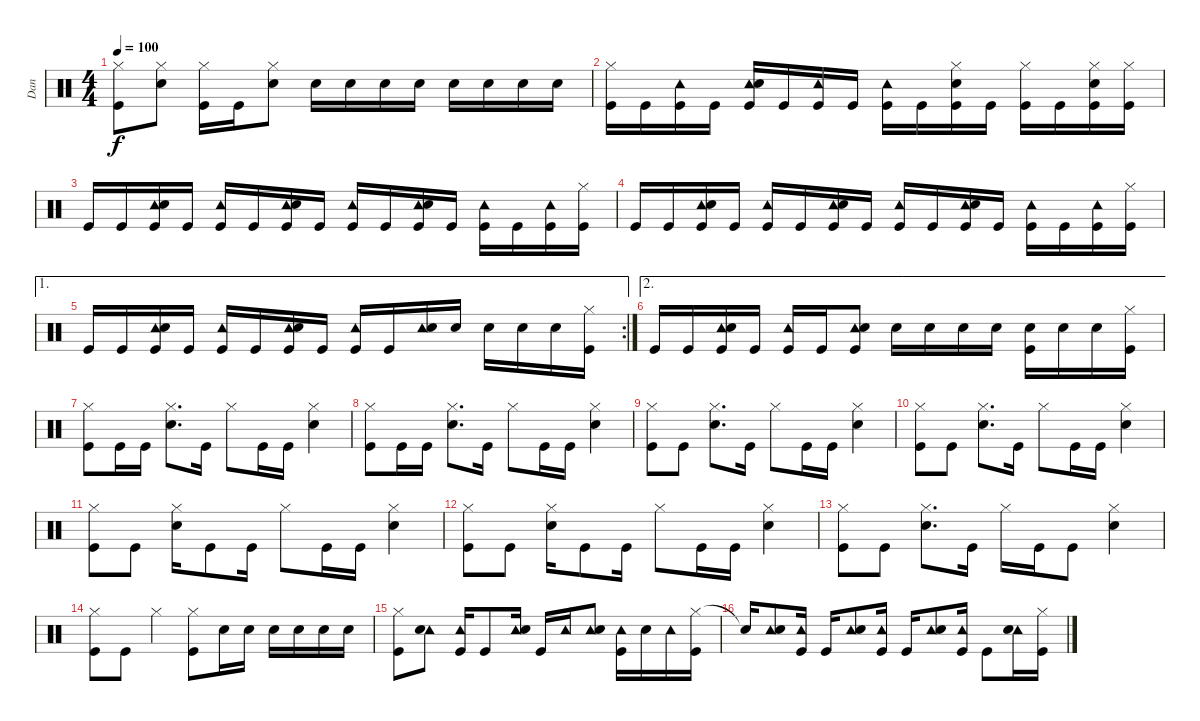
\track ("Dan" "Dan") {instrument percussion}
\staff {score}
\articulation defaults
\ts (4 4)
\tempo 100
\clef neutral
\ks c
("Hi-Hat (closed)" "Kick (hit)").8{dy f} ("Hi-Hat (closed)" "Snare (hit) 2").8 ("Hi-Hat (closed)" "Kick (hit)").16 "Kick (hit)".16 ("Hi-Hat (closed)" "Snare (hit) 2").8 "Snare (hit) 2".16 "Snare (hit) 2".16 "Snare (hit) 2".16 "Snare (hit) 2".16 "Snare (hit) 2".16 "Snare (hit) 2".16 "Snare (hit) 2".16 "Snare (hit) 2".16 |
("Hi-Hat (closed)" "Kick (hit)").16 "Kick (hit)".16 ("Tambourine (hit)" "Kick (hit)").16 "Kick (hit)".16 ("Tambourine (hit)" "Snare (hit) 2" "Kick (hit)").16 "Kick (hit)".16 ("Tambourine (hit)" "Kick (hit)").16 "Kick (hit)".16 ("Tambourine (hit)" "Kick (hit)").16 "Kick (hit)".16 ("Hi-Hat (closed)" "Snare (hit) 2" "Kick (hit)").16 "Kick (hit)".16 ("Hi-Hat (closed)" "Kick (hit)").16 "Kick (hit)".16 ("Hi-Hat (closed)" "Snare (hit) 2" "Kick (hit)").16 ("Hi-Hat (closed)" "Kick (hit)").16 |
"Kick (hit)".16 "Kick (hit)".16 ("Tambourine (hit)" "Snare (hit) 2" "Kick (hit)").16 "Kick (hit)".16 ("Tambourine (hit)" "Kick (hit)").16 "Kick (hit)".16 ("Tambourine (hit)" "Snare (hit) 2" "Kick (hit)").16 "Kick (hit)".16 ("Tambourine (hit)" "Kick (hit)").16 "Kick (hit)".16 ("Tambourine (hit)" "Snare (hit) 2" "Kick (hit)").16 "Kick (hit)".16 ("Tambourine (hit)" "Kick (hit)").16 "Kick (hit)".16 ("Tambourine (hit)" "Kick (hit)").16 ("Hi-Hat (closed)" "Kick (hit)").16 |
"Kick (hit)".16 "Kick (hit)".16 ("Tambourine (hit)" "Snare (hit) 2" "Kick (hit)").16 "Kick (hit)".16 ("Tambourine (hit)" "Kick (hit)").16 "Kick (hit)".16 ("Tambourine (hit)" "Snare (hit) 2" "Kick (hit)").16 "Kick (hit)".16 ("Tambourine (hit)" "Kick (hit)").16 "Kick (hit)".16 ("Tambourine (hit)" "Snare (hit) 2" "Kick (hit)").16 "Kick (hit)".16 ("Tambourine (hit)" "Kick (hit)").16 "Kick (hit)".16 ("Tambourine (hit)" "Kick (hit)").16 ("Hi-Hat (closed)" "Kick (hit)").16 |
\ae 1
\rc 2 "Kick (hit)".16 "Kick (hit)".16
("Tambourine (hit)" "Snare (hit) 2" "Kick (hit)").16 "Kick (hit)".16 ("Tambourine (hit)" "Kick (hit)").16 "Kick (hit)".16 ("Tambourine (hit)" "Snare (hit) 2" "Kick (hit)").16 "Kick (hit)".16 ("Tambourine (hit)" "Kick (hit)").16 "Kick (hit)".16 ("Tambourine (hit)" "Snare (hit) 2").16 "Snare (hit) 2".16 "Snare (hit) 2".16 "Snare (hit) 2".16 "Snare (hit) 2".16 ("Hi-Hat (closed)" "Kick (hit)").16 |
\ae 2 "Kick (hit)".16 "Kick (hit)".16
("Tambourine (hit)" "Snare (hit) 2" "Kick (hit)").16 "Kick (hit)".16 ("Tambourine (hit)" "Kick (hit)").16 "Kick (hit)".16 ("Tambourine (hit)" "Snare (hit) 2" "Kick (hit)").8 "Snare (hit) 2".16 "Snare (hit) 2".16 "Snare (hit) 2".16 "Snare (hit) 2".16 ("Snare (hit) 2" "Kick (hit)").16 "Snare (hit) 2".16 "Snare (hit) 2".16 ("Hi-Hat (closed)" "Kick (hit)").16 |
("Hi-Hat (closed)" "Kick (hit)").8 "Kick (hit)".16 "Kick (hit)".16 ("Hi-Hat (closed)" "Snare (hit) 2").8{d} "Kick (hit)".16 "Hi-Hat (closed)".8 "Kick (hit)".16 "Kick (hit)".16 ("Hi-Hat (closed)" "Snare (hit) 2").4 |
("Hi-Hat (closed)" "Kick (hit)").8 "Kick (hit)".16 "Kick (hit)".16 ("Hi-Hat (closed)" "Snare (hit) 2").8{d} "Kick (hit)".16 "Hi-Hat (closed)".8 "Kick (hit)".16 "Kick (hit)".16 ("Hi-Hat (closed)" "Snare (hit) 2").4 |
("Hi-Hat (closed)" "Kick (hit)").8 "Kick (hit)".8 ("Hi-Hat (closed)" "Snare (hit) 2").8{d} "Kick (hit)".16 "Hi-Hat (closed)".8 "Kick (hit)".16 "Kick (hit)".16 ("Hi-Hat (closed)" "Snare (hit) 2").4 |
("Hi-Hat (closed)" "Kick (hit)").8 "Kick (hit)".8 ("Hi-Hat (closed)" "Snare (hit) 2").8{d} "Kick (hit)".16 "Hi-Hat (closed)".8 "Kick (hit)".16 "Kick (hit)".16 ("Hi-Hat (closed)" "Snare (hit) 2").4 |
("Hi-Hat (closed)" "Kick (hit)").8 "Kick (hit)".8 ("Hi-Hat (closed)" "Snare (hit) 2").16 "Kick (hit)".8 "Kick (hit)".16 "Hi-Hat (closed)".8 "Kick (hit)".16 "Kick (hit)".16 ("Hi-Hat (closed)" "Snare (hit) 2").4 |
("Hi-Hat (closed)" "Kick (hit)").8 "Kick (hit)".8 ("Hi-Hat (closed)" "Snare (hit) 2").16 "Kick (hit)".8 "Kick (hit)".16 "Hi-Hat (closed)".8 "Kick (hit)".16 "Kick (hit)".16 ("Hi-Hat (closed)" "Snare (hit) 2").4 |
("Hi-Hat (closed)" "Kick (hit)").8 "Kick (hit)".8 ("Hi-Hat (closed)" "Snare (hit) 2").8{d} "Kick (hit)".16 "Hi-Hat (closed)".16 "Kick (hit)".16 "Kick (hit)".8 ("Hi-Hat (closed)" "Snare (hit) 2").4 |
("Hi-Hat (closed)" "Kick (hit)").8 "Kick (hit)".8 "Hi-Hat (closed)".4 ("Hi-Hat (closed)" "Kick (hit)").8 "Snare (hit) 2".16 "Snare (hit) 2".16 "Snare (hit) 2".16 "Snare (hit) 2".16 "Snare (hit) 2".16 "Snare (hit) 2".16 |
("Hi-Hat (closed)" "Kick (hit)").8 ("Tambourine (hit)" "Snare (hit) 2").8 ("Tambourine (hit)" "Kick (hit)").16 "Kick (hit)".8 ("Tambourine (hit)" "Snare (hit) 2").16 "Kick (hit)".16 "Tambourine (hit)".16 ("Tambourine (hit)" "Snare (hit) 2").8 ("Tambourine (hit)" "Kick (hit)").16 "Snare (hit) 2".16 "Tambourine (hit)".16 ("Hi-Hat (closed)" "Kick (hit)").16 |
"Snare (hit)"{t}.16 ("Tambourine (hit)" "Snare (hit) 2").8 ("Tambourine (hit)" "Kick (hit)").16 "Kick (hit)".16 ("Tambourine (hit)" "Snare (hit) 2").8 ("Tambourine (hit)" "Kick (hit)").16 "Kick (hit)".16 ("Tambourine (hit)" "Snare (hit) 2").8 ("Tambourine (hit)" "Kick (hit)").16 "Kick (hit)".8 ("Tambourine (hit)" "Snare (hit) 2").16 ("Hi-Hat (closed)" "Kick (hit)").16
